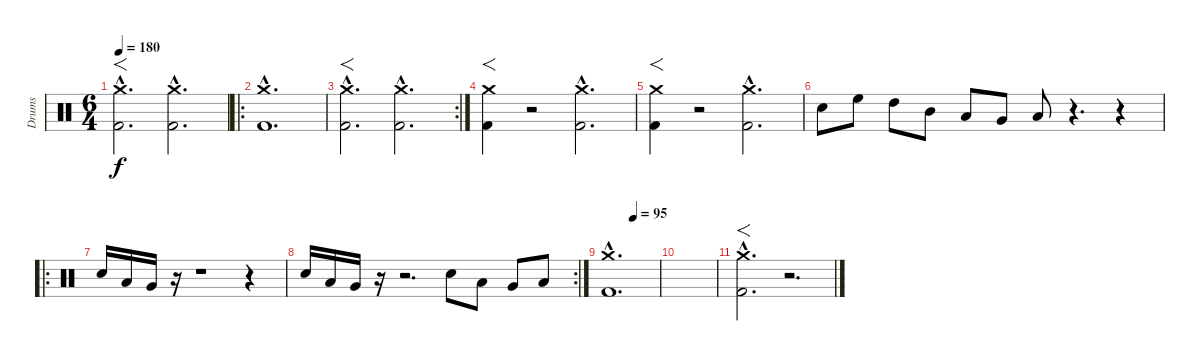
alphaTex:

\track ("Drums" "Drums") {instrument percussion}
\staff {score}
\articulation defaults
\ts (6 4)
\tempo 180
\clef neutral
\ks c
("Crash medium (hit)"{hac} "Kick (hit) 2"{hac}).2{f d dy f} ("Crash medium (hit)"{hac} "Kick (hit) 2"{hac}).2{d} |
\ro
("Crash medium (hit)"{hac} "Kick (hit) 2"{hac}).1{d} |
\rc 2
("Crash medium (hit)"{hac} "Kick (hit) 2"{hac}).2{f d} ("Crash medium (hit)"{hac} "Kick (hit) 2"{hac}).2{d} |
("Crash medium (hit)" "Kick (hit) 2").4{f} r.2 ("Crash medium (hit)"{hac} "Kick (hit) 2"{hac}).2{d} |
("Crash medium (hit)" "Kick (hit) 2").4{f} r.2 ("Crash medium (hit)"{hac} "Kick (hit) 2"{hac}).2{d} |
"Electric Snare (hit)".8 "High Floor Tom (hit)".8 "High Tom (hit)".8 "Mid Tom (hit)".8 "Low Tom (hit)".8 "Very Low Tom (hit)".8 "Low Floor Tom (hit)".8 r.4{d} r.4 |
\ro "Electric Snare (hit)".16 "Low Tom (hit)".16 "Very Low Tom (hit)".16
r.16 r.1 r.4 |
\rc 2 "Electric Snare (hit)".16 "Low Tom (hit)".16 "Very Low Tom (hit)".16
r.16 r.2{d} "Electric Snare (hit)".8 "Low Tom (hit)".8 "Very Low Tom (hit)".8 "Low Floor Tom (hit)".8 |
\tempo (95 0.5)
("Crash medium (hit)"{hac} "Kick (hit) 2"{hac}).1{d} |
|
("Crash medium (hit)"{hac} "Kick (hit) 2"{hac}).2{f d} r.2{d}
